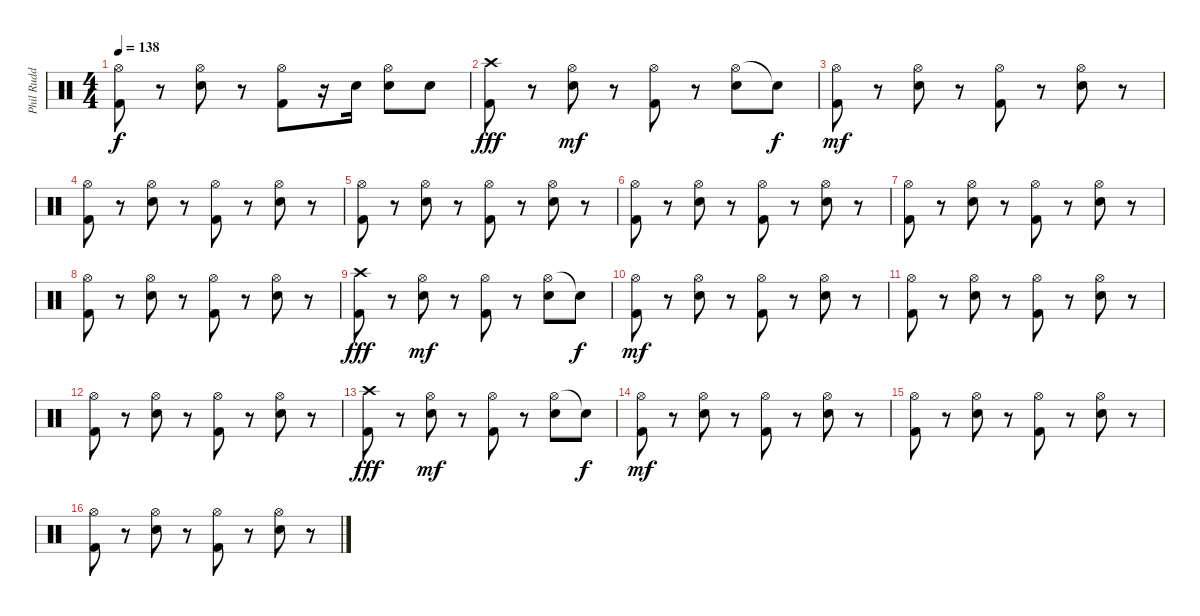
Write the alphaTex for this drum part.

\track ("Phil Rudd" "Phil Rudd") {instrument percussion}
\staff {score}
\articulation defaults
\ts (4 4)
\tempo 138
\clef neutral
\ks c
("Hi-Hat (open)" "Kick (hit) 2").8{dy f} r.8 ("Hi-Hat (open)" "Snare (hit) 2").8 r.8 ("Hi-Hat (open)" "Kick (hit) 2").8 r.16 "Snare (hit) 2".16 ("Hi-Hat (open)" "Snare (hit) 2").8 "Snare (hit) 2".8 |
("Crash high (hit)" "Kick (hit) 2").8{dy fff} r.8 ("Hi-Hat (open)" "Snare (hit) 2").8{dy mf} r.8 ("Hi-Hat (open)" "Kick (hit) 2").8 r.8 ("Hi-Hat (open)" "Snare (hit) 2").8 "Snare (hit)"{t}.8{dy f} |
("Hi-Hat (open)" "Kick (hit) 2").8{dy mf} r.8 ("Hi-Hat (open)" "Snare (hit) 2").8 r.8 ("Hi-Hat (open)" "Kick (hit) 2").8 r.8 ("Hi-Hat (open)" "Snare (hit) 2").8 r.8 |
("Hi-Hat (open)" "Kick (hit) 2").8 r.8 ("Hi-Hat (open)" "Snare (hit) 2").8 r.8 ("Hi-Hat (open)" "Kick (hit) 2").8 r.8 ("Hi-Hat (open)" "Snare (hit) 2").8 r.8 |
("Hi-Hat (open)" "Kick (hit) 2").8 r.8 ("Hi-Hat (open)" "Snare (hit) 2").8 r.8 ("Hi-Hat (open)" "Kick (hit) 2").8 r.8 ("Hi-Hat (open)" "Snare (hit) 2").8 r.8 |
("Hi-Hat (open)" "Kick (hit) 2").8 r.8 ("Hi-Hat (open)" "Snare (hit) 2").8 r.8 ("Hi-Hat (open)" "Kick (hit) 2").8 r.8 ("Hi-Hat (open)" "Snare (hit) 2").8 r.8 |
("Hi-Hat (open)" "Kick (hit) 2").8 r.8 ("Hi-Hat (open)" "Snare (hit) 2").8 r.8 ("Hi-Hat (open)" "Kick (hit) 2").8 r.8 ("Hi-Hat (open)" "Snare (hit) 2").8 r.8 |
("Hi-Hat (open)" "Kick (hit) 2").8 r.8 ("Hi-Hat (open)" "Snare (hit) 2").8 r.8 ("Hi-Hat (open)" "Kick (hit) 2").8 r.8 ("Hi-Hat (open)" "Snare (hit) 2").8 r.8 |
("Crash high (hit)" "Kick (hit) 2").8{dy fff} r.8 ("Hi-Hat (open)" "Snare (hit) 2").8{dy mf} r.8 ("Hi-Hat (open)" "Kick (hit) 2").8 r.8 ("Hi-Hat (open)" "Snare (hit) 2").8 "Snare (hit)"{t}.8{dy f} |
("Hi-Hat (open)" "Kick (hit) 2").8{dy mf} r.8 ("Hi-Hat (open)" "Snare (hit) 2").8 r.8 ("Hi-Hat (open)" "Kick (hit) 2").8 r.8 ("Hi-Hat (open)" "Snare (hit) 2").8 r.8 |
("Hi-Hat (open)" "Kick (hit) 2").8 r.8 ("Hi-Hat (open)" "Snare (hit) 2").8 r.8 ("Hi-Hat (open)" "Kick (hit) 2").8 r.8 ("Hi-Hat (open)" "Snare (hit) 2").8 r.8 |
("Hi-Hat (open)" "Kick (hit) 2").8 r.8 ("Hi-Hat (open)" "Snare (hit) 2").8 r.8 ("Hi-Hat (open)" "Kick (hit) 2").8 r.8 ("Hi-Hat (open)" "Snare (hit) 2").8 r.8 |
("Crash high (hit)" "Kick (hit) 2").8{dy fff} r.8 ("Hi-Hat (open)" "Snare (hit) 2").8{dy mf} r.8 ("Hi-Hat (open)" "Kick (hit) 2").8 r.8 ("Hi-Hat (open)" "Snare (hit) 2").8 "Snare (hit)"{t}.8{dy f} |
("Hi-Hat (open)" "Kick (hit) 2").8{dy mf} r.8 ("Hi-Hat (open)" "Snare (hit) 2").8 r.8 ("Hi-Hat (open)" "Kick (hit) 2").8 r.8 ("Hi-Hat (open)" "Snare (hit) 2").8 r.8 |
("Hi-Hat (open)" "Kick (hit) 2").8 r.8 ("Hi-Hat (open)" "Snare (hit) 2").8 r.8 ("Hi-Hat (open)" "Kick (hit) 2").8 r.8 ("Hi-Hat (open)" "Snare (hit) 2").8 r.8 |
("Hi-Hat (open)" "Kick (hit) 2").8 r.8 ("Hi-Hat (open)" "Snare (hit) 2").8 r.8 ("Hi-Hat (open)" "Kick (hit) 2").8 r.8 ("Hi-Hat (open)" "Snare (hit) 2").8 r.8
